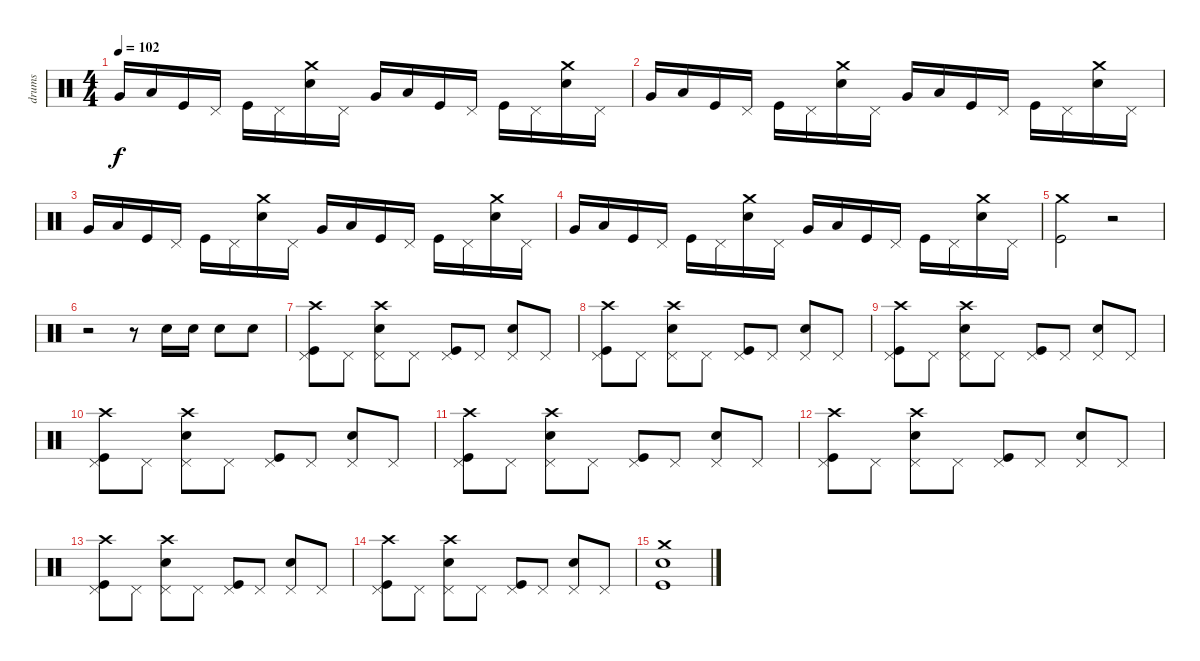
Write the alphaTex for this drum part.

\track ("drums" "drums") {instrument percussion}
\staff {score}
\articulation defaults
\ts (4 4)
\tempo 102
\clef neutral
\ks c "Very Low Tom (hit)".16{dy f} "Low Tom (hit)".16 "Kick (hit)".16 "Pedal Hi-Hat (hit)".16 "Kick (hit)".16 "Pedal Hi-Hat (hit)".16
("Crash medium (hit)" "Snare (hit) 2").16 "Pedal Hi-Hat (hit)".16 "Very Low Tom (hit)".16 "Low Tom (hit)".16 "Kick (hit)".16 "Pedal Hi-Hat (hit)".16 "Kick (hit)".16 "Pedal Hi-Hat (hit)".16 ("Crash medium (hit)" "Snare (hit) 2").16 "Pedal Hi-Hat (hit)".16 |
"Very Low Tom (hit)".16 "Low Tom (hit)".16 "Kick (hit)".16 "Pedal Hi-Hat (hit)".16 "Kick (hit)".16 "Pedal Hi-Hat (hit)".16 ("Crash medium (hit)" "Snare (hit) 2").16 "Pedal Hi-Hat (hit)".16 "Very Low Tom (hit)".16 "Low Tom (hit)".16 "Kick (hit)".16 "Pedal Hi-Hat (hit)".16 "Kick (hit)".16 "Pedal Hi-Hat (hit)".16 ("Crash medium (hit)" "Snare (hit) 2").16 "Pedal Hi-Hat (hit)".16 |
"Very Low Tom (hit)".16 "Low Tom (hit)".16 "Kick (hit)".16 "Pedal Hi-Hat (hit)".16 "Kick (hit)".16 "Pedal Hi-Hat (hit)".16 ("Crash medium (hit)" "Snare (hit) 2").16 "Pedal Hi-Hat (hit)".16 "Very Low Tom (hit)".16 "Low Tom (hit)".16 "Kick (hit)".16 "Pedal Hi-Hat (hit)".16 "Kick (hit)".16 "Pedal Hi-Hat (hit)".16 ("Crash medium (hit)" "Snare (hit) 2").16 "Pedal Hi-Hat (hit)".16 |
"Very Low Tom (hit)".16 "Low Tom (hit)".16 "Kick (hit)".16 "Pedal Hi-Hat (hit)".16 "Kick (hit)".16 "Pedal Hi-Hat (hit)".16 ("Crash medium (hit)" "Snare (hit) 2").16 "Pedal Hi-Hat (hit)".16 "Very Low Tom (hit)".16 "Low Tom (hit)".16 "Kick (hit)".16 "Pedal Hi-Hat (hit)".16 "Kick (hit)".16 "Pedal Hi-Hat (hit)".16 ("Crash medium (hit)" "Snare (hit) 2").16 "Pedal Hi-Hat (hit)".16 |
("Kick (hit)" "Crash medium (hit)").2 r.2 |
r.2 r.8 "Snare (hit) 2".16 "Snare (hit) 2".16 "Snare (hit) 2".8 "Snare (hit) 2".8 |
("Kick (hit)" "Crash high (hit)" "Pedal Hi-Hat (hit)").8 "Pedal Hi-Hat (hit)".8 ("Snare (hit) 2" "Crash high (hit)" "Pedal Hi-Hat (hit)").8 "Pedal Hi-Hat (hit)".8 ("Kick (hit)" "Pedal Hi-Hat (hit)").8 "Pedal Hi-Hat (hit)".8 ("Snare (hit) 2" "Pedal Hi-Hat (hit)").8 "Pedal Hi-Hat (hit)".8 |
("Kick (hit)" "Crash high (hit)" "Pedal Hi-Hat (hit)").8 "Pedal Hi-Hat (hit)".8 ("Snare (hit) 2" "Crash high (hit)" "Pedal Hi-Hat (hit)").8 "Pedal Hi-Hat (hit)".8 ("Kick (hit)" "Pedal Hi-Hat (hit)").8 "Pedal Hi-Hat (hit)".8 ("Snare (hit) 2" "Pedal Hi-Hat (hit)").8 "Pedal Hi-Hat (hit)".8 |
("Kick (hit)" "Crash high (hit)" "Pedal Hi-Hat (hit)").8 "Pedal Hi-Hat (hit)".8 ("Snare (hit) 2" "Crash high (hit)" "Pedal Hi-Hat (hit)").8 "Pedal Hi-Hat (hit)".8 ("Kick (hit)" "Pedal Hi-Hat (hit)").8 "Pedal Hi-Hat (hit)".8 ("Snare (hit) 2" "Pedal Hi-Hat (hit)").8 "Pedal Hi-Hat (hit)".8 |
("Kick (hit)" "Crash high (hit)" "Pedal Hi-Hat (hit)").8 "Pedal Hi-Hat (hit)".8 ("Snare (hit) 2" "Crash high (hit)" "Pedal Hi-Hat (hit)").8 "Pedal Hi-Hat (hit)".8 ("Kick (hit)" "Pedal Hi-Hat (hit)").8 "Pedal Hi-Hat (hit)".8 ("Snare (hit) 2" "Pedal Hi-Hat (hit)").8 "Pedal Hi-Hat (hit)".8 |
("Kick (hit)" "Crash high (hit)" "Pedal Hi-Hat (hit)").8 "Pedal Hi-Hat (hit)".8 ("Snare (hit) 2" "Crash high (hit)" "Pedal Hi-Hat (hit)").8 "Pedal Hi-Hat (hit)".8 ("Kick (hit)" "Pedal Hi-Hat (hit)").8 "Pedal Hi-Hat (hit)".8 ("Snare (hit) 2" "Pedal Hi-Hat (hit)").8 "Pedal Hi-Hat (hit)".8 |
("Kick (hit)" "Crash high (hit)" "Pedal Hi-Hat (hit)").8 "Pedal Hi-Hat (hit)".8 ("Snare (hit) 2" "Crash high (hit)" "Pedal Hi-Hat (hit)").8 "Pedal Hi-Hat (hit)".8 ("Kick (hit)" "Pedal Hi-Hat (hit)").8 "Pedal Hi-Hat (hit)".8 ("Snare (hit) 2" "Pedal Hi-Hat (hit)").8 "Pedal Hi-Hat (hit)".8 |
("Kick (hit)" "Crash high (hit)" "Pedal Hi-Hat (hit)").8 "Pedal Hi-Hat (hit)".8 ("Snare (hit) 2" "Crash high (hit)" "Pedal Hi-Hat (hit)").8 "Pedal Hi-Hat (hit)".8 ("Kick (hit)" "Pedal Hi-Hat (hit)").8 "Pedal Hi-Hat (hit)".8 ("Snare (hit) 2" "Pedal Hi-Hat (hit)").8 "Pedal Hi-Hat (hit)".8 |
("Kick (hit)" "Crash high (hit)" "Pedal Hi-Hat (hit)").8 "Pedal Hi-Hat (hit)".8 ("Snare (hit) 2" "Crash high (hit)" "Pedal Hi-Hat (hit)").8 "Pedal Hi-Hat (hit)".8 ("Kick (hit)" "Pedal Hi-Hat (hit)").8 "Pedal Hi-Hat (hit)".8 ("Snare (hit) 2" "Pedal Hi-Hat (hit)").8 "Pedal Hi-Hat (hit)".8 |
("Kick (hit)" "Snare (hit) 2" "Crash medium (hit)").1
